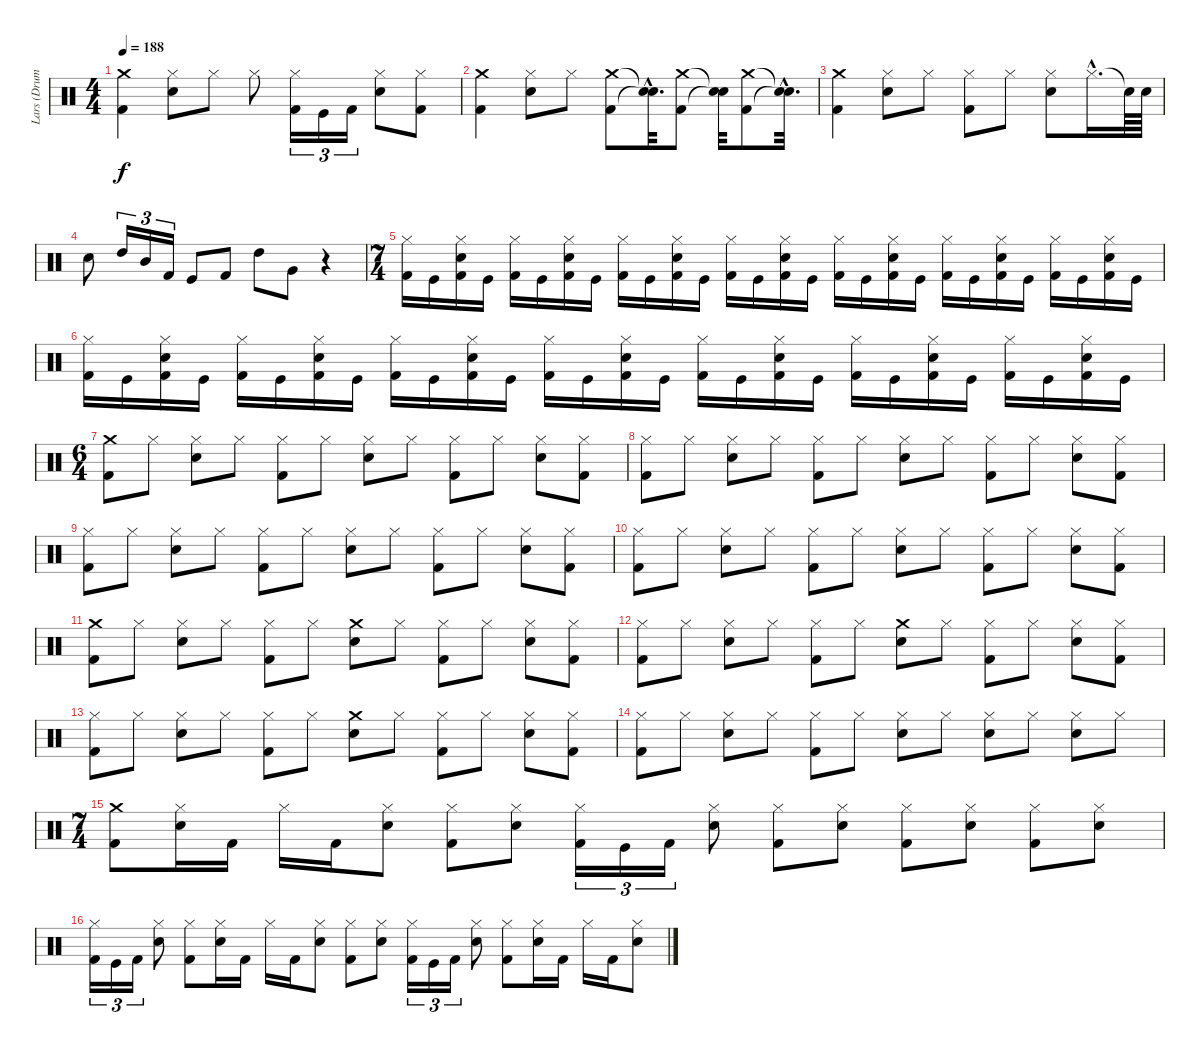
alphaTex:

\track ("Lars (Drums)" "Lars (Drum") {instrument percussion}
\staff {score}
\articulation defaults
\ts (4 4)
\tempo 188
\clef neutral
\ks c
("Kick (hit) 2" "Crash medium (hit)").4{dy f} ("Snare (hit) 2" "Hi-Hat (closed)").8 "Hi-Hat (closed)".8 "Hi-Hat (closed)".8 ("Kick (hit) 2" "Hi-Hat (closed)").16{tu (3 2)} "Kick (hit)".16{tu (3 2)} "Kick (hit) 2".16{tu (3 2)} ("Snare (hit) 2" "Hi-Hat (closed)").8 ("Kick (hit) 2" "Hi-Hat (closed)").8 |
("Kick (hit) 2" "Crash medium (hit)").4 ("Hi-Hat (closed)" "Snare (hit) 2").8 "Hi-Hat (closed)".8 ("Kick (hit) 2" "Crash medium (hit)").8 ("Snare (hit)"{hac t} "Snare (hit)"{hac t}).32{d} ("Kick (hit) 2" "Crash medium (hit)").8 ("Snare (hit)"{t} "Snare (hit)"{t}).32 ("Kick (hit) 2" "Crash medium (hit)").8 ("Snare (hit)"{hac t} "Snare (hit)"{hac t}).32{d} |
("Kick (hit) 2" "Crash medium (hit)").4 ("Hi-Hat (closed)" "Snare (hit) 2").8 "Hi-Hat (closed)".8 ("Hi-Hat (closed)" "Kick (hit) 2").8 "Hi-Hat (closed)".8 ("Snare (hit) 2" "Hi-Hat (closed)").8 "Hi-Hat (closed)"{hac}.16{d} "Snare (hit)"{t}.64 "Snare (hit) 2".64 |
"Snare (hit) 2".8 "High Tom (hit)".16{tu (3 2)} "Mid Tom (hit)".16{tu (3 2)} "Kick (hit) 2".16{tu (3 2)} "Kick (hit)".8 "Kick (hit) 2".8 "High Tom (hit)".8 "Very Low Tom (hit)".8 r.4 |
\ts (7 4)
("Hi-Hat (closed)" "Kick (hit) 2").16 "Kick (hit)".16 ("Snare (hit) 2" "Hi-Hat (closed)" "Kick (hit) 2").16 "Kick (hit)".16 ("Hi-Hat (closed)" "Kick (hit) 2").16 "Kick (hit)".16 ("Snare (hit) 2" "Hi-Hat (closed)" "Kick (hit) 2").16 "Kick (hit)".16 ("Hi-Hat (closed)" "Kick (hit) 2").16 "Kick (hit)".16 ("Snare (hit) 2" "Hi-Hat (closed)" "Kick (hit) 2").16 "Kick (hit)".16 ("Hi-Hat (closed)" "Kick (hit) 2").16 "Kick (hit)".16 ("Snare (hit) 2" "Hi-Hat (closed)" "Kick (hit) 2").16 "Kick (hit)".16 ("Hi-Hat (closed)" "Kick (hit) 2").16 "Kick (hit)".16 ("Snare (hit) 2" "Hi-Hat (closed)" "Kick (hit) 2").16 "Kick (hit)".16 ("Hi-Hat (closed)" "Kick (hit) 2").16 "Kick (hit)".16 ("Snare (hit) 2" "Hi-Hat (closed)" "Kick (hit) 2").16 "Kick (hit)".16 ("Hi-Hat (closed)" "Kick (hit) 2").16 "Kick (hit)".16 ("Snare (hit) 2" "Hi-Hat (closed)" "Kick (hit) 2").16 "Kick (hit)".16 |
("Hi-Hat (closed)" "Kick (hit) 2").16 "Kick (hit)".16 ("Snare (hit) 2" "Hi-Hat (closed)" "Kick (hit) 2").16 "Kick (hit)".16 ("Hi-Hat (closed)" "Kick (hit) 2").16 "Kick (hit)".16 ("Snare (hit) 2" "Hi-Hat (closed)" "Kick (hit) 2").16 "Kick (hit)".16 ("Hi-Hat (closed)" "Kick (hit) 2").16 "Kick (hit)".16 ("Snare (hit) 2" "Hi-Hat (closed)" "Kick (hit) 2").16 "Kick (hit)".16 ("Hi-Hat (closed)" "Kick (hit) 2").16 "Kick (hit)".16 ("Snare (hit) 2" "Hi-Hat (closed)" "Kick (hit) 2").16 "Kick (hit)".16 ("Hi-Hat (closed)" "Kick (hit) 2").16 "Kick (hit)".16 ("Snare (hit) 2" "Hi-Hat (closed)" "Kick (hit) 2").16 "Kick (hit)".16 ("Hi-Hat (closed)" "Kick (hit) 2").16 "Kick (hit)".16 ("Snare (hit) 2" "Hi-Hat (closed)" "Kick (hit) 2").16 "Kick (hit)".16 ("Hi-Hat (closed)" "Kick (hit) 2").16 "Kick (hit)".16 ("Snare (hit) 2" "Hi-Hat (closed)" "Kick (hit) 2").16 "Kick (hit)".16 |
\ts (6 4)
("Kick (hit) 2" "Crash medium (hit)").8 "Hi-Hat (closed)".8 ("Snare (hit) 2" "Hi-Hat (closed)").8 "Hi-Hat (closed)".8 ("Kick (hit) 2" "Hi-Hat (closed)").8 "Hi-Hat (closed)".8 ("Snare (hit) 2" "Hi-Hat (closed)").8 "Hi-Hat (closed)".8 ("Kick (hit) 2" "Hi-Hat (closed)").8 "Hi-Hat (closed)".8 ("Snare (hit) 2" "Hi-Hat (closed)").8 ("Kick (hit) 2" "Hi-Hat (closed)").8 |
("Hi-Hat (closed)" "Kick (hit) 2").8 "Hi-Hat (closed)".8 ("Snare (hit) 2" "Hi-Hat (closed)").8 "Hi-Hat (closed)".8 ("Kick (hit) 2" "Hi-Hat (closed)").8 "Hi-Hat (closed)".8 ("Snare (hit) 2" "Hi-Hat (closed)").8 "Hi-Hat (closed)".8 ("Kick (hit) 2" "Hi-Hat (closed)").8 "Hi-Hat (closed)".8 ("Snare (hit) 2" "Hi-Hat (closed)").8 ("Kick (hit) 2" "Hi-Hat (closed)").8 |
("Hi-Hat (closed)" "Kick (hit) 2").8 "Hi-Hat (closed)".8 ("Snare (hit) 2" "Hi-Hat (closed)").8 "Hi-Hat (closed)".8 ("Kick (hit) 2" "Hi-Hat (closed)").8 "Hi-Hat (closed)".8 ("Snare (hit) 2" "Hi-Hat (closed)").8 "Hi-Hat (closed)".8 ("Kick (hit) 2" "Hi-Hat (closed)").8 "Hi-Hat (closed)".8 ("Snare (hit) 2" "Hi-Hat (closed)").8 ("Kick (hit) 2" "Hi-Hat (closed)").8 |
("Hi-Hat (closed)" "Kick (hit) 2").8 "Hi-Hat (closed)".8 ("Snare (hit) 2" "Hi-Hat (closed)").8 "Hi-Hat (closed)".8 ("Kick (hit) 2" "Hi-Hat (closed)").8 "Hi-Hat (closed)".8 ("Snare (hit) 2" "Hi-Hat (closed)").8 "Hi-Hat (closed)".8 ("Kick (hit) 2" "Hi-Hat (closed)").8 "Hi-Hat (closed)".8 ("Snare (hit) 2" "Hi-Hat (closed)").8 ("Kick (hit) 2" "Hi-Hat (closed)").8 |
("Kick (hit) 2" "Crash medium (hit)").8 "Hi-Hat (closed)".8 ("Snare (hit) 2" "Hi-Hat (closed)").8 "Hi-Hat (closed)".8 ("Kick (hit) 2" "Hi-Hat (closed)").8 "Hi-Hat (closed)".8 ("Crash medium (hit)" "Snare (hit) 2").8 "Hi-Hat (closed)".8 ("Kick (hit) 2" "Hi-Hat (closed)").8 "Hi-Hat (closed)".8 ("Snare (hit) 2" "Hi-Hat (closed)").8 ("Kick (hit) 2" "Hi-Hat (closed)").8 |
("Hi-Hat (closed)" "Kick (hit) 2").8 "Hi-Hat (closed)".8 ("Snare (hit) 2" "Hi-Hat (closed)").8 "Hi-Hat (closed)".8 ("Kick (hit) 2" "Hi-Hat (closed)").8 "Hi-Hat (closed)".8 ("Crash medium (hit)" "Snare (hit) 2").8 "Hi-Hat (closed)".8 ("Kick (hit) 2" "Hi-Hat (closed)").8 "Hi-Hat (closed)".8 ("Snare (hit) 2" "Hi-Hat (closed)").8 ("Kick (hit) 2" "Hi-Hat (closed)").8 |
("Hi-Hat (closed)" "Kick (hit) 2").8 "Hi-Hat (closed)".8 ("Snare (hit) 2" "Hi-Hat (closed)").8 "Hi-Hat (closed)".8 ("Kick (hit) 2" "Hi-Hat (closed)").8 "Hi-Hat (closed)".8 ("Crash medium (hit)" "Snare (hit) 2").8 "Hi-Hat (closed)".8 ("Kick (hit) 2" "Hi-Hat (closed)").8 "Hi-Hat (closed)".8 ("Snare (hit) 2" "Hi-Hat (closed)").8 ("Kick (hit) 2" "Hi-Hat (closed)").8 |
("Hi-Hat (closed)" "Kick (hit) 2").8 "Hi-Hat (closed)".8 ("Snare (hit) 2" "Hi-Hat (closed)").8 "Hi-Hat (closed)".8 ("Kick (hit) 2" "Hi-Hat (closed)").8 "Hi-Hat (closed)".8 ("Snare (hit) 2" "Hi-Hat (closed)").8 "Hi-Hat (closed)".8 ("Snare (hit) 2" "Hi-Hat (closed)").8 "Hi-Hat (closed)".8 ("Snare (hit) 2" "Hi-Hat (closed)").8 "Hi-Hat (closed)".8 |
\ts (7 4)
("Kick (hit) 2" "Crash medium (hit)").8 ("Snare (hit) 2" "Hi-Hat (closed)").16 "Kick (hit) 2".16 "Hi-Hat (closed)".16 "Kick (hit) 2".16 ("Snare (hit) 2" "Hi-Hat (closed)").8 ("Kick (hit) 2" "Hi-Hat (closed)").8 ("Snare (hit) 2" "Hi-Hat (closed)").8 ("Kick (hit) 2" "Hi-Hat (closed)").16{tu (3 2)} "Kick (hit)".16{tu (3 2)} "Kick (hit) 2".16{tu (3 2)} ("Snare (hit) 2" "Hi-Hat (closed)").8 ("Kick (hit) 2" "Hi-Hat (closed)").8 ("Snare (hit) 2" "Hi-Hat (closed)").8 ("Kick (hit) 2" "Hi-Hat (closed)").8 ("Snare (hit) 2" "Hi-Hat (closed)").8 ("Kick (hit) 2" "Hi-Hat (closed)").8 ("Snare (hit) 2" "Hi-Hat (closed)").8 |
("Kick (hit) 2" "Hi-Hat (closed)").16{tu (3 2)} "Kick (hit)".16{tu (3 2)} "Kick (hit) 2".16{tu (3 2)} ("Snare (hit) 2" "Hi-Hat (closed)").8 ("Kick (hit) 2" "Hi-Hat (closed)").8 ("Snare (hit) 2" "Hi-Hat (closed)").16 "Kick (hit) 2".16 "Hi-Hat (closed)".16 "Kick (hit) 2".16 ("Snare (hit) 2" "Hi-Hat (closed)").8 ("Kick (hit) 2" "Hi-Hat (closed)").8 ("Snare (hit) 2" "Hi-Hat (closed)").8 ("Kick (hit) 2" "Hi-Hat (closed)").16{tu (3 2)} "Kick (hit)".16{tu (3 2)} "Kick (hit) 2".16{tu (3 2)} ("Snare (hit) 2" "Hi-Hat (closed)").8 ("Kick (hit) 2" "Hi-Hat (closed)").8 ("Snare (hit) 2" "Hi-Hat (closed)").16 "Kick (hit) 2".16 "Hi-Hat (closed)".16 "Kick (hit) 2".16 ("Snare (hit) 2" "Hi-Hat (closed)").8
